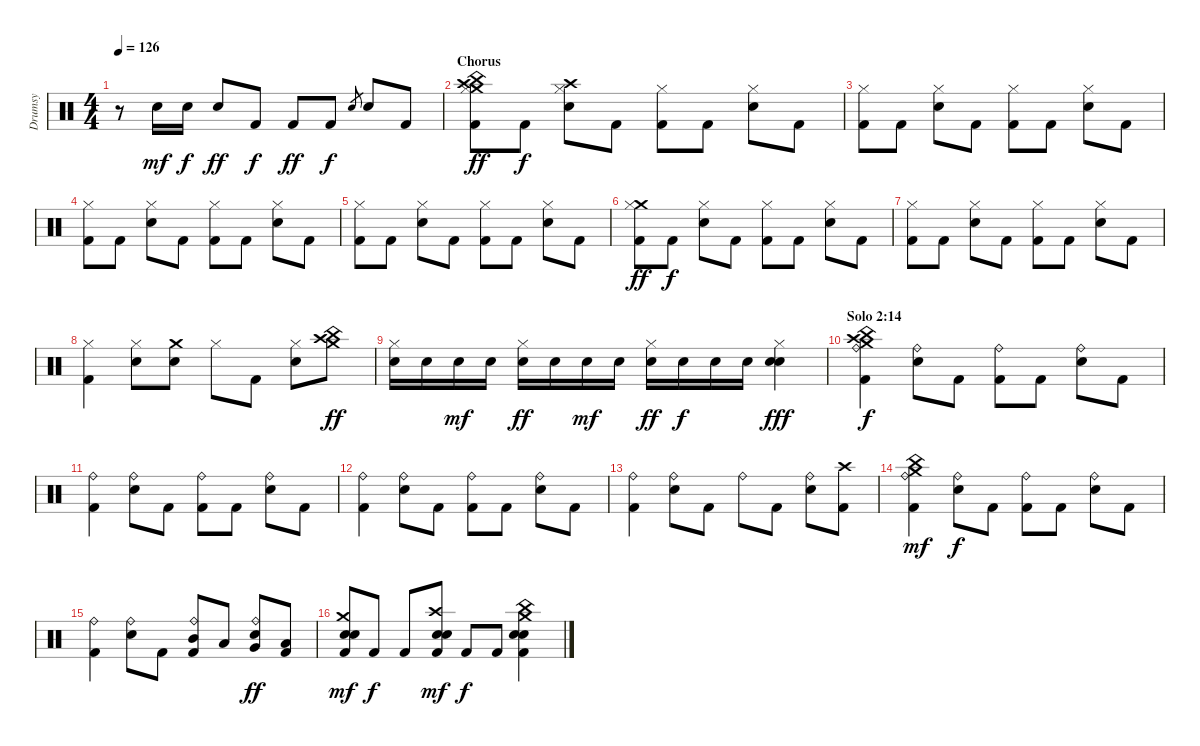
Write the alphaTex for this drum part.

\track ("Drumsy" "Drumsy") {instrument percussion}
\staff {score}
\articulation defaults
\ts (4 4)
\tempo 126
\clef neutral
\ks c
r.8{dy f} "Electric Snare (hit)".16{dy mf} "Electric Snare (hit)".16{dy f} "Electric Snare (hit)".8{dy ff} "Kick (hit) 2".8{dy f} "Kick (hit) 2".8{dy ff} "Kick (hit) 2".8{dy f} "Electric Snare (hit)".8{gr} "Electric Snare (hit)".8 "Kick (hit) 2".8 |
\section ("" "Chorus")
("Crash medium (hit)" "Hi-Hat (closed)" "Crash high (hit)" "China (hit)" "Kick (hit) 2").8{dy ff} "Kick (hit) 2".8{dy f} ("Crash high (hit)" "Hi-Hat (closed)" "Electric Snare (hit)").8 "Kick (hit) 2".8 ("Hi-Hat (closed)" "Kick (hit) 2").8 "Kick (hit) 2".8 ("Hi-Hat (closed)" "Electric Snare (hit)").8 "Kick (hit) 2".8 |
("Hi-Hat (closed)" "Kick (hit) 2").8 "Kick (hit) 2".8 ("Hi-Hat (closed)" "Electric Snare (hit)").8 "Kick (hit) 2".8 ("Hi-Hat (closed)" "Kick (hit) 2").8 "Kick (hit) 2".8 ("Hi-Hat (closed)" "Electric Snare (hit)").8 "Kick (hit) 2".8 |
("Hi-Hat (closed)" "Kick (hit) 2").8 "Kick (hit) 2".8 ("Hi-Hat (closed)" "Electric Snare (hit)").8 "Kick (hit) 2".8 ("Hi-Hat (closed)" "Kick (hit) 2").8 "Kick (hit) 2".8 ("Hi-Hat (closed)" "Electric Snare (hit)").8 "Kick (hit) 2".8 |
("Hi-Hat (closed)" "Kick (hit) 2").8 "Kick (hit) 2".8 ("Hi-Hat (closed)" "Electric Snare (hit)").8 "Kick (hit) 2".8 ("Hi-Hat (closed)" "Kick (hit) 2").8 "Kick (hit) 2".8 ("Hi-Hat (closed)" "Electric Snare (hit)").8 "Kick (hit) 2".8 |
("Crash medium (hit)" "Hi-Hat (closed)" "Kick (hit) 2").8{dy ff} "Kick (hit) 2".8{dy f} ("Hi-Hat (closed)" "Electric Snare (hit)").8 "Kick (hit) 2".8 ("Hi-Hat (closed)" "Kick (hit) 2").8 "Kick (hit) 2".8 ("Hi-Hat (closed)" "Electric Snare (hit)").8 "Kick (hit) 2".8 |
("Hi-Hat (closed)" "Kick (hit) 2").8 "Kick (hit) 2".8 ("Hi-Hat (closed)" "Electric Snare (hit)").8 "Kick (hit) 2".8 ("Hi-Hat (closed)" "Kick (hit) 2").8 "Kick (hit) 2".8 ("Hi-Hat (closed)" "Electric Snare (hit)").8 "Kick (hit) 2".8 |
("Hi-Hat (closed)" "Kick (hit) 2").4 ("Hi-Hat (closed)" "Electric Snare (hit)").8 ("Crash medium (hit)" "Snare (hit) 2").8 "Hi-Hat (closed)".8 "Kick (hit) 2".8 ("Hi-Hat (closed)" "Electric Snare (hit)").8 ("Crash high (hit)" "Crash medium (hit)" "China (hit)").8{dy ff} |
("Hi-Hat (closed)" "Electric Snare (hit)").16 "Electric Snare (hit)".16 "Electric Snare (hit)".16{dy mf} "Electric Snare (hit)".16 ("Hi-Hat (closed)" "Electric Snare (hit)").16{dy ff} "Electric Snare (hit)".16 "Electric Snare (hit)".16{dy mf} "Electric Snare (hit)".16 ("Hi-Hat (closed)" "Electric Snare (hit)").16{dy ff} "Electric Snare (hit)".16{dy f} "Electric Snare (hit)".16 "Electric Snare (hit)".16 ("Hi-Hat (closed)" "Snare (hit) 2" "Electric Snare (hit)").4{dy fff} |
\section ("" "Solo 2:14")
("Ride (bell)" "Crash medium (hit)" "China (hit)" "Crash high (hit)" "Kick (hit) 2").4{dy f} ("Ride (bell)" "Electric Snare (hit)").8 "Kick (hit) 2".8 ("Ride (bell)" "Kick (hit) 2").8 "Kick (hit) 2".8 ("Ride (bell)" "Electric Snare (hit)").8 "Kick (hit) 2".8 |
("Ride (bell)" "Kick (hit) 2").4 ("Ride (bell)" "Electric Snare (hit)").8 "Kick (hit) 2".8 ("Ride (bell)" "Kick (hit) 2").8 "Kick (hit) 2".8 ("Ride (bell)" "Electric Snare (hit)").8 "Kick (hit) 2".8 |
("Ride (bell)" "Kick (hit) 2").4 ("Ride (bell)" "Electric Snare (hit)").8 "Kick (hit) 2".8 ("Ride (bell)" "Kick (hit) 2").8 "Kick (hit) 2".8 ("Ride (bell)" "Electric Snare (hit)").8 "Kick (hit) 2".8 |
("Ride (bell)" "Kick (hit) 2").4 ("Ride (bell)" "Electric Snare (hit)").8 "Kick (hit) 2".8 "Ride (bell)".8 "Kick (hit) 2".8 ("Ride (bell)" "Electric Snare (hit)").8 ("Crash high (hit)" "Kick (hit) 2").8 |
("Ride (bell)" "Crash medium (hit)" "China (hit)" "Kick (hit) 2").4{dy mf} ("Ride (bell)" "Electric Snare (hit)").8{dy f} "Kick (hit) 2".8 ("Ride (bell)" "Kick (hit) 2").8 "Kick (hit) 2".8 ("Ride (bell)" "Electric Snare (hit)").8 "Kick (hit) 2".8 |
("Ride (bell)" "Kick (hit) 2").4 ("Ride (bell)" "Electric Snare (hit)").8 "Kick (hit) 2".8 ("Ride (bell)" "Mid Tom (hit)" "Kick (hit) 2").8 "Low Tom (hit)".8 ("Ride (bell)" "Very Low Tom (hit)" "Electric Snare (hit)").8{dy ff} ("Low Tom (hit)" "Kick (hit) 2").8 |
("Crash medium (hit)" "Snare (hit) 2" "Electric Snare (hit)" "Kick (hit) 2").8{dy mf} "Kick (hit) 2".8{dy f} "Kick (hit) 2".8 ("Crash high (hit)" "Snare (hit) 2" "Electric Snare (hit)" "Kick (hit) 2").8{dy mf} "Kick (hit) 2".8{dy f} "Kick (hit) 2".8 ("Crash medium (hit)" "China (hit)" "Snare (hit) 2" "Electric Snare (hit)" "Kick (hit) 2").4
